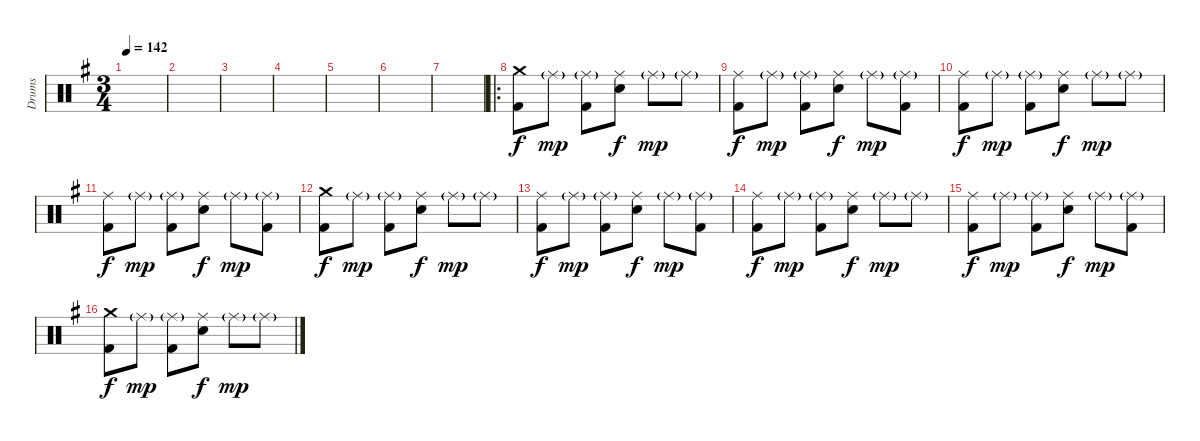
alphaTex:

\track ("Drums" "Drums") {instrument percussion}
\staff {score}
\articulation defaults
\ts (3 4)
\tempo 142
\clef neutral
\ks eminor
|
|
|
|
|
|
|
\ro
("Crash medium (hit)" "Kick (hit) 2").8 "Ride (middle)"{g}.8{dy mp} ("Ride (middle)"{g} "Kick (hit) 2").8 ("Ride (middle)" "Electric Snare (hit)").8{dy f} "Ride (middle)"{g}.8{dy mp} "Ride (middle)"{g}.8 |
("Ride (middle)" "Kick (hit) 2").8{dy f} "Ride (middle)"{g}.8{dy mp} ("Ride (middle)"{g} "Kick (hit) 2").8 ("Ride (middle)" "Electric Snare (hit)").8{dy f} "Ride (middle)"{g}.8{dy mp} ("Ride (middle)"{g} "Kick (hit) 2").8 |
("Ride (middle)" "Kick (hit) 2").8{dy f} "Ride (middle)"{g}.8{dy mp} ("Ride (middle)"{g} "Kick (hit) 2").8 ("Ride (middle)" "Electric Snare (hit)").8{dy f} "Ride (middle)"{g}.8{dy mp} "Ride (middle)"{g}.8 |
("Ride (middle)" "Kick (hit) 2").8{dy f} "Ride (middle)"{g}.8{dy mp} ("Ride (middle)"{g} "Kick (hit) 2").8 ("Ride (middle)" "Electric Snare (hit)").8{dy f} "Ride (middle)"{g}.8{dy mp} ("Ride (middle)"{g} "Kick (hit) 2").8 |
("Crash medium (hit)" "Kick (hit) 2").8{dy f} "Ride (middle)"{g}.8{dy mp} ("Ride (middle)"{g} "Kick (hit) 2").8 ("Ride (middle)" "Electric Snare (hit)").8{dy f} "Ride (middle)"{g}.8{dy mp} "Ride (middle)"{g}.8 |
("Ride (middle)" "Kick (hit) 2").8{dy f} "Ride (middle)"{g}.8{dy mp} ("Ride (middle)"{g} "Kick (hit) 2").8 ("Ride (middle)" "Electric Snare (hit)").8{dy f} "Ride (middle)"{g}.8{dy mp} ("Ride (middle)"{g} "Kick (hit) 2").8 |
("Ride (middle)" "Kick (hit) 2").8{dy f} "Ride (middle)"{g}.8{dy mp} ("Ride (middle)"{g} "Kick (hit) 2").8 ("Ride (middle)" "Electric Snare (hit)").8{dy f} "Ride (middle)"{g}.8{dy mp} "Ride (middle)"{g}.8 |
("Ride (middle)" "Kick (hit) 2").8{dy f} "Ride (middle)"{g}.8{dy mp} ("Ride (middle)"{g} "Kick (hit) 2").8 ("Ride (middle)" "Electric Snare (hit)").8{dy f} "Ride (middle)"{g}.8{dy mp} ("Ride (middle)"{g} "Kick (hit) 2").8 |
("Crash medium (hit)" "Kick (hit) 2").8{dy f} "Ride (middle)"{g}.8{dy mp} ("Ride (middle)"{g} "Kick (hit) 2").8 ("Ride (middle)" "Electric Snare (hit)").8{dy f} "Ride (middle)"{g}.8{dy mp} "Ride (middle)"{g}.8
